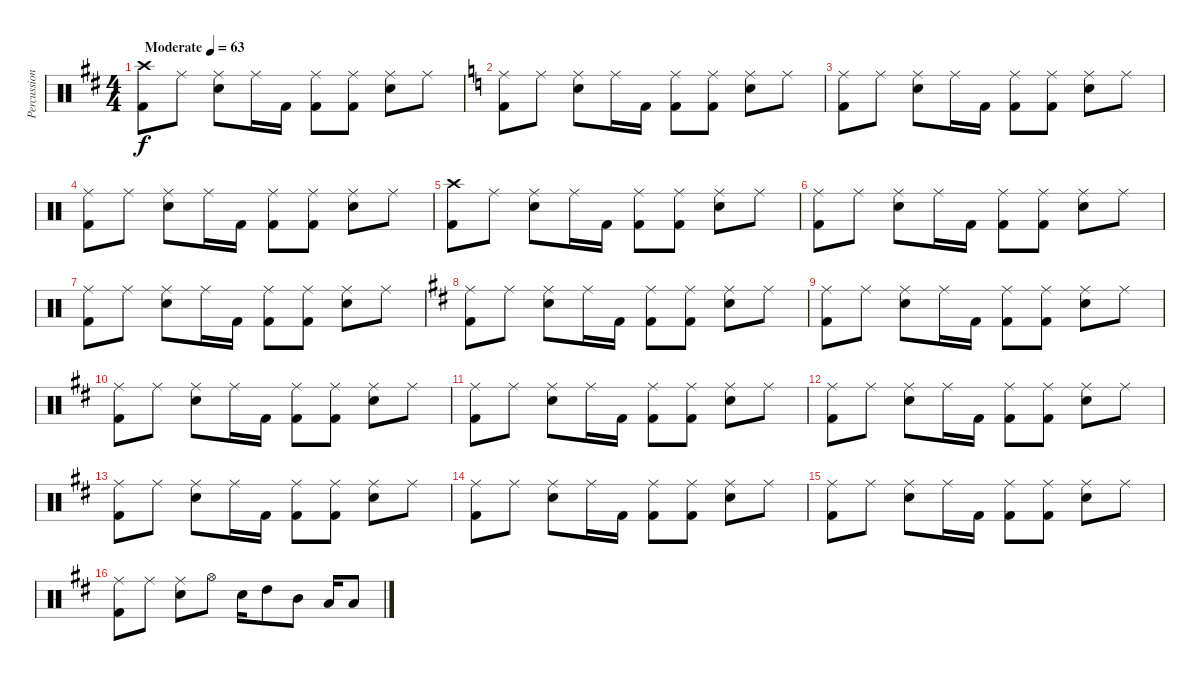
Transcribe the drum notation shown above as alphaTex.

\track ("Percussion" "Percussion") {instrument percussion}
\staff {score}
\articulation defaults
\ts (4 4)
\tempo (63 "Moderate")
\clef neutral
\ks d
("Crash high (hit)" "Kick (hit) 2").8{dy f} "Ride (middle)".8 ("Ride (middle)" "Snare (hit) 2").8 "Ride (middle)".16 "Kick (hit) 2".16 ("Ride (middle)" "Kick (hit) 2").8 ("Ride (middle)" "Kick (hit) 2").8 ("Ride (middle)" "Snare (hit) 2").8 "Ride (middle)".8 |
\ks c
("Ride (middle)" "Kick (hit) 2").8 "Ride (middle)".8 ("Ride (middle)" "Snare (hit) 2").8 "Ride (middle)".16 "Kick (hit) 2".16 ("Ride (middle)" "Kick (hit) 2").8 ("Ride (middle)" "Kick (hit) 2").8 ("Ride (middle)" "Snare (hit) 2").8 "Ride (middle)".8 |
("Ride (middle)" "Kick (hit) 2").8 "Ride (middle)".8 ("Ride (middle)" "Snare (hit) 2").8 "Ride (middle)".16 "Kick (hit) 2".16 ("Ride (middle)" "Kick (hit) 2").8 ("Ride (middle)" "Kick (hit) 2").8 ("Ride (middle)" "Snare (hit) 2").8 "Ride (middle)".8 |
("Ride (middle)" "Kick (hit) 2").8 "Ride (middle)".8 ("Ride (middle)" "Snare (hit) 2").8 "Ride (middle)".16 "Kick (hit) 2".16 ("Ride (middle)" "Kick (hit) 2").8 ("Ride (middle)" "Kick (hit) 2").8 ("Ride (middle)" "Snare (hit) 2").8 "Ride (middle)".8 |
("Crash high (hit)" "Kick (hit) 2").8 "Ride (middle)".8 ("Ride (middle)" "Snare (hit) 2").8 "Ride (middle)".16 "Kick (hit) 2".16 ("Ride (middle)" "Kick (hit) 2").8 ("Ride (middle)" "Kick (hit) 2").8 ("Ride (middle)" "Snare (hit) 2").8 "Ride (middle)".8 |
("Ride (middle)" "Kick (hit) 2").8 "Ride (middle)".8 ("Ride (middle)" "Snare (hit) 2").8 "Ride (middle)".16 "Kick (hit) 2".16 ("Ride (middle)" "Kick (hit) 2").8 ("Ride (middle)" "Kick (hit) 2").8 ("Ride (middle)" "Snare (hit) 2").8 "Ride (middle)".8 |
("Ride (middle)" "Kick (hit) 2").8 "Ride (middle)".8 ("Ride (middle)" "Snare (hit) 2").8 "Ride (middle)".16 "Kick (hit) 2".16 ("Ride (middle)" "Kick (hit) 2").8 ("Ride (middle)" "Kick (hit) 2").8 ("Ride (middle)" "Snare (hit) 2").8 "Ride (middle)".8 |
\ks d
("Ride (middle)" "Kick (hit) 2").8 "Ride (middle)".8 ("Ride (middle)" "Snare (hit) 2").8 "Ride (middle)".16 "Kick (hit) 2".16 ("Ride (middle)" "Kick (hit) 2").8 ("Ride (middle)" "Kick (hit) 2").8 ("Ride (middle)" "Snare (hit) 2").8 "Ride (middle)".8 |
("Ride (middle)" "Kick (hit) 2").8 "Ride (middle)".8 ("Ride (middle)" "Snare (hit) 2").8 "Ride (middle)".16 "Kick (hit) 2".16 ("Ride (middle)" "Kick (hit) 2").8 ("Ride (middle)" "Kick (hit) 2").8 ("Ride (middle)" "Snare (hit) 2").8 "Ride (middle)".8 |
("Ride (middle)" "Kick (hit) 2").8 "Ride (middle)".8 ("Ride (middle)" "Snare (hit) 2").8 "Ride (middle)".16 "Kick (hit) 2".16 ("Ride (middle)" "Kick (hit) 2").8 ("Ride (middle)" "Kick (hit) 2").8 ("Ride (middle)" "Snare (hit) 2").8 "Ride (middle)".8 |
("Ride (middle)" "Kick (hit) 2").8 "Ride (middle)".8 ("Ride (middle)" "Snare (hit) 2").8 "Ride (middle)".16 "Kick (hit) 2".16 ("Ride (middle)" "Kick (hit) 2").8 ("Ride (middle)" "Kick (hit) 2").8 ("Ride (middle)" "Snare (hit) 2").8 "Ride (middle)".8 |
("Ride (middle)" "Kick (hit) 2").8 "Ride (middle)".8 ("Ride (middle)" "Snare (hit) 2").8 "Ride (middle)".16 "Kick (hit) 2".16 ("Ride (middle)" "Kick (hit) 2").8 ("Ride (middle)" "Kick (hit) 2").8 ("Ride (middle)" "Snare (hit) 2").8 "Ride (middle)".8 |
("Ride (middle)" "Kick (hit) 2").8 "Ride (middle)".8 ("Ride (middle)" "Snare (hit) 2").8 "Ride (middle)".16 "Kick (hit) 2".16 ("Ride (middle)" "Kick (hit) 2").8 ("Ride (middle)" "Kick (hit) 2").8 ("Ride (middle)" "Snare (hit) 2").8 "Ride (middle)".8 |
("Ride (middle)" "Kick (hit) 2").8 "Ride (middle)".8 ("Ride (middle)" "Snare (hit) 2").8 "Ride (middle)".16 "Kick (hit) 2".16 ("Ride (middle)" "Kick (hit) 2").8 ("Ride (middle)" "Kick (hit) 2").8 ("Ride (middle)" "Snare (hit) 2").8 "Ride (middle)".8 |
("Ride (middle)" "Kick (hit) 2").8 "Ride (middle)".8 ("Ride (middle)" "Snare (hit) 2").8 "Ride (middle)".16 "Kick (hit) 2".16 ("Ride (middle)" "Kick (hit) 2").8 ("Ride (middle)" "Kick (hit) 2").8 ("Ride (middle)" "Snare (hit) 2").8 "Ride (middle)".8 |
("Ride (middle)" "Kick (hit) 2").8 "Ride (middle)".8 ("Ride (middle)" "Snare (hit) 2").8 "Hi-Hat (open)".8 "Snare (hit) 2".16 "High Tom (hit)".8 "Mid Tom (hit)".8 "Low Tom (hit)".16 "Low Tom (hit)".8
